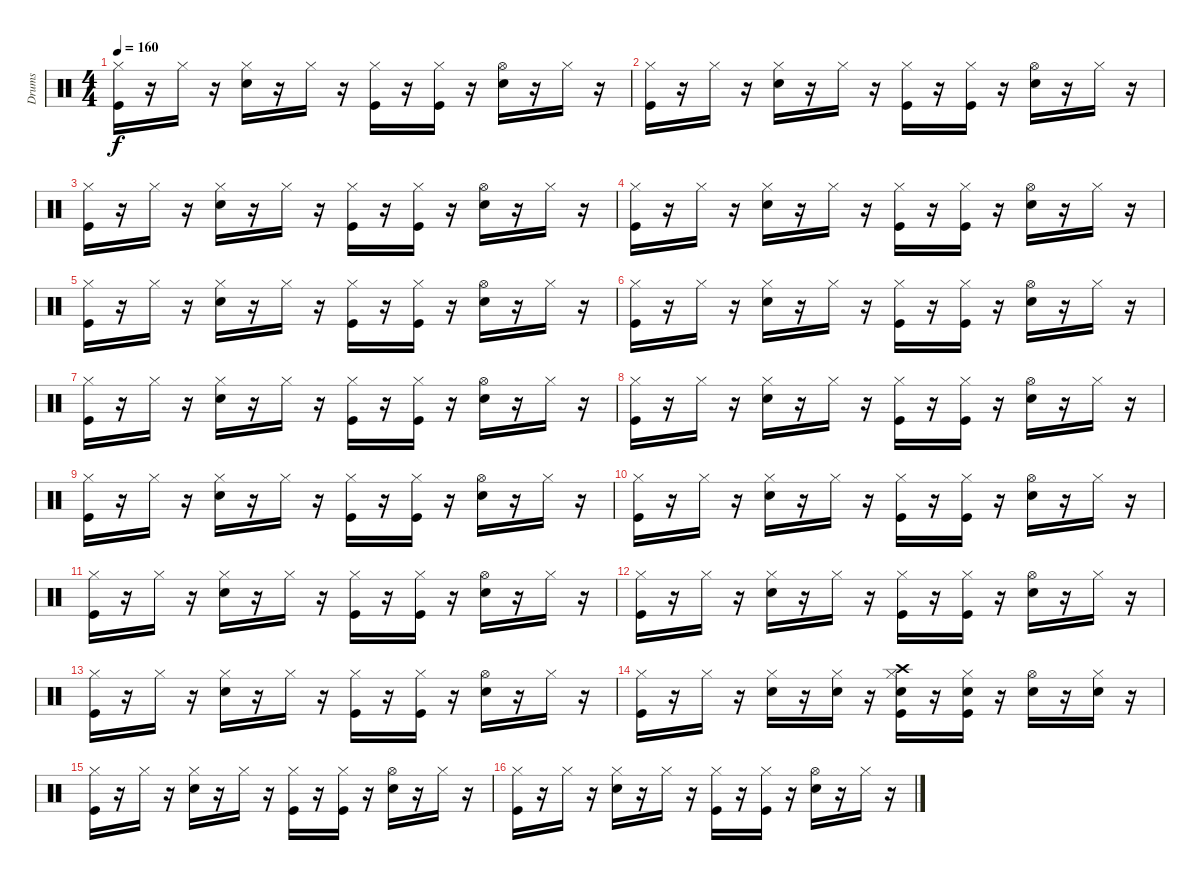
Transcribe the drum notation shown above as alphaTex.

\track ("Drums" "Drums") {instrument percussion}
\staff {score}
\articulation defaults
\ts (4 4)
\tempo 160
\clef neutral
\ks c
("Hi-Hat (closed)" "Kick (hit)").16{dy f} r.16 "Hi-Hat (closed)".16 r.16 ("Hi-Hat (closed)" "Snare (hit) 2").16 r.16 "Hi-Hat (closed)".16 r.16 ("Hi-Hat (closed)" "Kick (hit)").16 r.16 ("Kick (hit)" "Hi-Hat (closed)").16 r.16 ("Hi-Hat (open)" "Snare (hit) 2").16 r.16 "Hi-Hat (closed)".16 r.16 |
("Hi-Hat (closed)" "Kick (hit)").16 r.16 "Hi-Hat (closed)".16 r.16 ("Hi-Hat (closed)" "Snare (hit) 2").16 r.16 "Hi-Hat (closed)".16 r.16 ("Hi-Hat (closed)" "Kick (hit)").16 r.16 ("Kick (hit)" "Hi-Hat (closed)").16 r.16 ("Hi-Hat (open)" "Snare (hit) 2").16 r.16 "Hi-Hat (closed)".16 r.16 |
("Hi-Hat (closed)" "Kick (hit)").16 r.16 "Hi-Hat (closed)".16 r.16 ("Hi-Hat (closed)" "Snare (hit) 2").16 r.16 "Hi-Hat (closed)".16 r.16 ("Hi-Hat (closed)" "Kick (hit)").16 r.16 ("Kick (hit)" "Hi-Hat (closed)").16 r.16 ("Hi-Hat (open)" "Snare (hit) 2").16 r.16 "Hi-Hat (closed)".16 r.16 |
("Hi-Hat (closed)" "Kick (hit)").16 r.16 "Hi-Hat (closed)".16 r.16 ("Hi-Hat (closed)" "Snare (hit) 2").16 r.16 "Hi-Hat (closed)".16 r.16 ("Hi-Hat (closed)" "Kick (hit)").16 r.16 ("Kick (hit)" "Hi-Hat (closed)").16 r.16 ("Hi-Hat (open)" "Snare (hit) 2").16 r.16 "Hi-Hat (closed)".16 r.16 |
("Hi-Hat (closed)" "Kick (hit)").16 r.16 "Hi-Hat (closed)".16 r.16 ("Hi-Hat (closed)" "Snare (hit) 2").16 r.16 "Hi-Hat (closed)".16 r.16 ("Hi-Hat (closed)" "Kick (hit)").16 r.16 ("Kick (hit)" "Hi-Hat (closed)").16 r.16 ("Hi-Hat (open)" "Snare (hit) 2").16 r.16 "Hi-Hat (closed)".16 r.16 |
("Hi-Hat (closed)" "Kick (hit)").16 r.16 "Hi-Hat (closed)".16 r.16 ("Hi-Hat (closed)" "Snare (hit) 2").16 r.16 "Hi-Hat (closed)".16 r.16 ("Hi-Hat (closed)" "Kick (hit)").16 r.16 ("Kick (hit)" "Hi-Hat (closed)").16 r.16 ("Hi-Hat (open)" "Snare (hit) 2").16 r.16 "Hi-Hat (closed)".16 r.16 |
("Hi-Hat (closed)" "Kick (hit)").16 r.16 "Hi-Hat (closed)".16 r.16 ("Hi-Hat (closed)" "Snare (hit) 2").16 r.16 "Hi-Hat (closed)".16 r.16 ("Hi-Hat (closed)" "Kick (hit)").16 r.16 ("Kick (hit)" "Hi-Hat (closed)").16 r.16 ("Hi-Hat (open)" "Snare (hit) 2").16 r.16 "Hi-Hat (closed)".16 r.16 |
("Hi-Hat (closed)" "Kick (hit)").16 r.16 "Hi-Hat (closed)".16 r.16 ("Hi-Hat (closed)" "Snare (hit) 2").16 r.16 "Hi-Hat (closed)".16 r.16 ("Hi-Hat (closed)" "Kick (hit)").16 r.16 ("Kick (hit)" "Hi-Hat (closed)").16 r.16 ("Hi-Hat (open)" "Snare (hit) 2").16 r.16 "Hi-Hat (closed)".16 r.16 |
("Hi-Hat (closed)" "Kick (hit)").16 r.16 "Hi-Hat (closed)".16 r.16 ("Hi-Hat (closed)" "Snare (hit) 2").16 r.16 "Hi-Hat (closed)".16 r.16 ("Hi-Hat (closed)" "Kick (hit)").16 r.16 ("Kick (hit)" "Hi-Hat (closed)").16 r.16 ("Hi-Hat (open)" "Snare (hit) 2").16 r.16 "Hi-Hat (closed)".16 r.16 |
("Hi-Hat (closed)" "Kick (hit)").16 r.16 "Hi-Hat (closed)".16 r.16 ("Hi-Hat (closed)" "Snare (hit) 2").16 r.16 "Hi-Hat (closed)".16 r.16 ("Hi-Hat (closed)" "Kick (hit)").16 r.16 ("Kick (hit)" "Hi-Hat (closed)").16 r.16 ("Hi-Hat (open)" "Snare (hit) 2").16 r.16 "Hi-Hat (closed)".16 r.16 |
("Hi-Hat (closed)" "Kick (hit)").16 r.16 "Hi-Hat (closed)".16 r.16 ("Hi-Hat (closed)" "Snare (hit) 2").16 r.16 "Hi-Hat (closed)".16 r.16 ("Hi-Hat (closed)" "Kick (hit)").16 r.16 ("Kick (hit)" "Hi-Hat (closed)").16 r.16 ("Hi-Hat (open)" "Snare (hit) 2").16 r.16 "Hi-Hat (closed)".16 r.16 |
("Hi-Hat (closed)" "Kick (hit)").16 r.16 "Hi-Hat (closed)".16 r.16 ("Hi-Hat (closed)" "Snare (hit) 2").16 r.16 "Hi-Hat (closed)".16 r.16 ("Hi-Hat (closed)" "Kick (hit)").16 r.16 ("Kick (hit)" "Hi-Hat (closed)").16 r.16 ("Hi-Hat (open)" "Snare (hit) 2").16 r.16 "Hi-Hat (closed)".16 r.16 |
("Hi-Hat (closed)" "Kick (hit)").16 r.16 "Hi-Hat (closed)".16 r.16 ("Hi-Hat (closed)" "Snare (hit) 2").16 r.16 "Hi-Hat (closed)".16 r.16 ("Hi-Hat (closed)" "Kick (hit)").16 r.16 ("Kick (hit)" "Hi-Hat (closed)").16 r.16 ("Hi-Hat (open)" "Snare (hit) 2").16 r.16 "Hi-Hat (closed)".16 r.16 |
("Hi-Hat (closed)" "Kick (hit)").16 r.16 "Hi-Hat (closed)".16 r.16 ("Hi-Hat (closed)" "Snare (hit) 2").16 r.16 ("Snare (hit) 2" "Hi-Hat (closed)").16 r.16 ("Crash high (hit)" "Snare (hit) 2" "Hi-Hat (closed)" "Kick (hit)").16 r.16 ("Snare (hit) 2" "Kick (hit)" "Hi-Hat (closed)").16 r.16 ("Hi-Hat (open)" "Snare (hit) 2").16 r.16 ("Snare (hit) 2" "Hi-Hat (closed)").16 r.16 |
("Hi-Hat (closed)" "Kick (hit)").16 r.16 "Hi-Hat (closed)".16 r.16 ("Hi-Hat (closed)" "Snare (hit) 2").16 r.16 "Hi-Hat (closed)".16 r.16 ("Hi-Hat (closed)" "Kick (hit)").16 r.16 ("Kick (hit)" "Hi-Hat (closed)").16 r.16 ("Hi-Hat (open)" "Snare (hit) 2").16 r.16 "Hi-Hat (closed)".16 r.16 |
("Hi-Hat (closed)" "Kick (hit)").16 r.16 "Hi-Hat (closed)".16 r.16 ("Hi-Hat (closed)" "Snare (hit) 2").16 r.16 "Hi-Hat (closed)".16 r.16 ("Hi-Hat (closed)" "Kick (hit)").16 r.16 ("Kick (hit)" "Hi-Hat (closed)").16 r.16 ("Hi-Hat (open)" "Snare (hit) 2").16 r.16 "Hi-Hat (closed)".16 r.16
